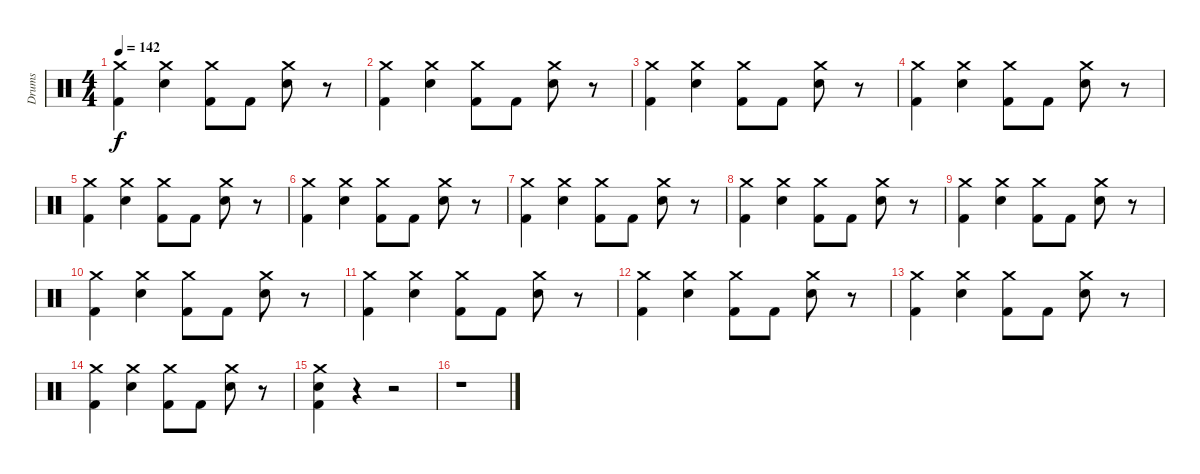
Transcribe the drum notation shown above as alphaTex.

\track ("Drums" "Drums") {instrument percussion}
\staff {score}
\articulation defaults
\ts (4 4)
\tempo 142
\clef neutral
\ks c
("Crash medium (hit)" "Kick (hit) 2").4{dy f} ("Crash medium (hit)" "Snare (hit) 2").4 ("Crash medium (hit)" "Kick (hit) 2").8 "Kick (hit) 2".8 ("Crash medium (hit)" "Snare (hit) 2").8 r.8 |
("Crash medium (hit)" "Kick (hit) 2").4 ("Crash medium (hit)" "Snare (hit) 2").4 ("Crash medium (hit)" "Kick (hit) 2").8 "Kick (hit) 2".8 ("Crash medium (hit)" "Snare (hit) 2").8 r.8 |
("Crash medium (hit)" "Kick (hit) 2").4 ("Crash medium (hit)" "Snare (hit) 2").4 ("Crash medium (hit)" "Kick (hit) 2").8 "Kick (hit) 2".8 ("Crash medium (hit)" "Snare (hit) 2").8 r.8 |
("Crash medium (hit)" "Kick (hit) 2").4 ("Crash medium (hit)" "Snare (hit) 2").4 ("Crash medium (hit)" "Kick (hit) 2").8 "Kick (hit) 2".8 ("Crash medium (hit)" "Snare (hit) 2").8 r.8 |
("Crash medium (hit)" "Kick (hit) 2").4 ("Crash medium (hit)" "Snare (hit) 2").4 ("Crash medium (hit)" "Kick (hit) 2").8 "Kick (hit) 2".8 ("Crash medium (hit)" "Snare (hit) 2").8 r.8 |
("Crash medium (hit)" "Kick (hit) 2").4 ("Crash medium (hit)" "Snare (hit) 2").4 ("Crash medium (hit)" "Kick (hit) 2").8 "Kick (hit) 2".8 ("Crash medium (hit)" "Snare (hit) 2").8 r.8 |
("Crash medium (hit)" "Kick (hit) 2").4 ("Crash medium (hit)" "Snare (hit) 2").4 ("Crash medium (hit)" "Kick (hit) 2").8 "Kick (hit) 2".8 ("Crash medium (hit)" "Snare (hit) 2").8 r.8 |
("Crash medium (hit)" "Kick (hit) 2").4 ("Crash medium (hit)" "Snare (hit) 2").4 ("Crash medium (hit)" "Kick (hit) 2").8 "Kick (hit) 2".8 ("Crash medium (hit)" "Snare (hit) 2").8 r.8 |
("Crash medium (hit)" "Kick (hit) 2").4 ("Crash medium (hit)" "Snare (hit) 2").4 ("Crash medium (hit)" "Kick (hit) 2").8 "Kick (hit) 2".8 ("Crash medium (hit)" "Snare (hit) 2").8 r.8 |
("Crash medium (hit)" "Kick (hit) 2").4 ("Crash medium (hit)" "Snare (hit) 2").4 ("Crash medium (hit)" "Kick (hit) 2").8 "Kick (hit) 2".8 ("Crash medium (hit)" "Snare (hit) 2").8 r.8 |
("Crash medium (hit)" "Kick (hit) 2").4 ("Crash medium (hit)" "Snare (hit) 2").4 ("Crash medium (hit)" "Kick (hit) 2").8 "Kick (hit) 2".8 ("Crash medium (hit)" "Snare (hit) 2").8 r.8 |
("Crash medium (hit)" "Kick (hit) 2").4 ("Crash medium (hit)" "Snare (hit) 2").4 ("Crash medium (hit)" "Kick (hit) 2").8 "Kick (hit) 2".8 ("Crash medium (hit)" "Snare (hit) 2").8 r.8 |
("Crash medium (hit)" "Kick (hit) 2").4 ("Crash medium (hit)" "Snare (hit) 2").4 ("Crash medium (hit)" "Kick (hit) 2").8 "Kick (hit) 2".8 ("Crash medium (hit)" "Snare (hit) 2").8 r.8 |
("Crash medium (hit)" "Kick (hit) 2").4 ("Crash medium (hit)" "Snare (hit) 2").4 ("Crash medium (hit)" "Kick (hit) 2").8 "Kick (hit) 2".8 ("Crash medium (hit)" "Snare (hit) 2").8 r.8 |
("Crash medium (hit)" "Snare (hit) 2" "Kick (hit) 2").4 r.4 r.2 |
r.1
